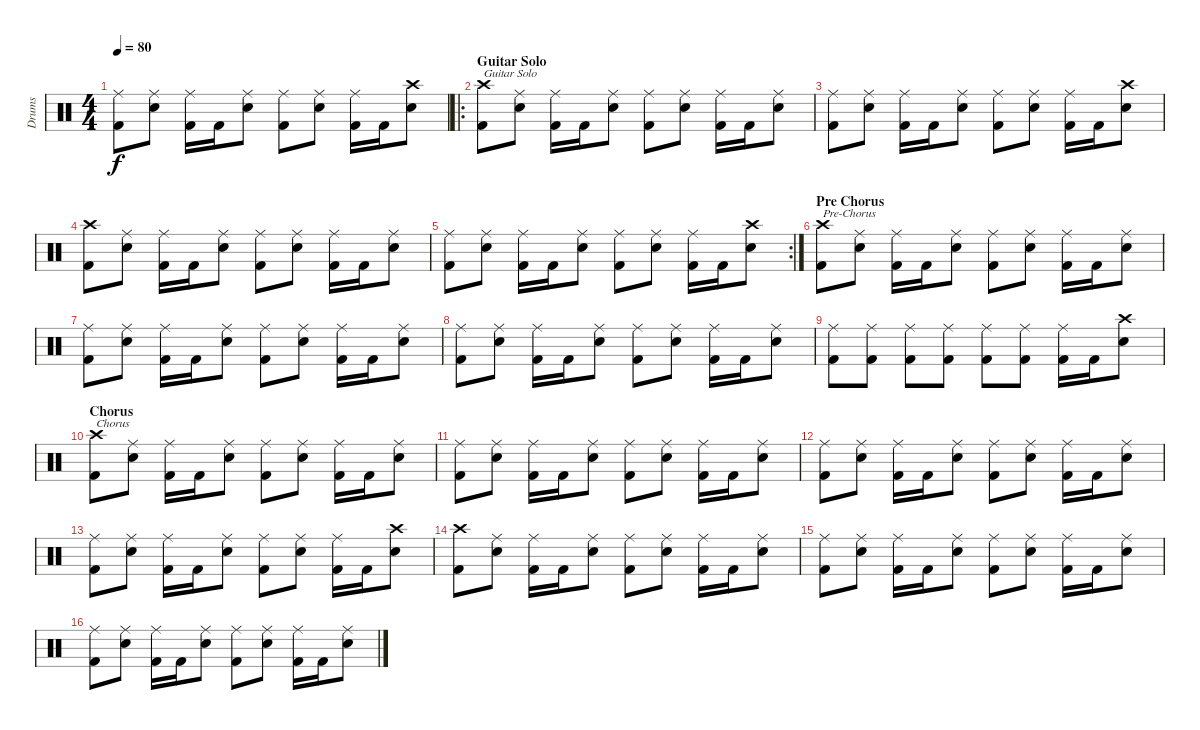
\track ("Drums" "Drums") {instrument percussion}
\staff {score}
\articulation defaults
\ts (4 4)
\tempo 80
\clef neutral
\ks c
("Ride (middle)" "Kick (hit) 2").8{dy f} ("Ride (middle)" "Electric Snare (hit)").8 ("Ride (middle)" "Kick (hit) 2").16 "Kick (hit) 2".16 ("Ride (middle)" "Electric Snare (hit)").8 ("Ride (middle)" "Kick (hit) 2").8 ("Ride (middle)" "Electric Snare (hit)").8 ("Ride (middle)" "Kick (hit) 2").16 "Kick (hit) 2".16 ("Crash high (hit)" "Electric Snare (hit)").8 |
\ro
\section ("" "Guitar Solo")
("Crash high (hit)" "Kick (hit) 2").8{txt "Guitar Solo"} ("Ride (middle)" "Electric Snare (hit)").8 ("Ride (middle)" "Kick (hit) 2").16 "Kick (hit) 2".16 ("Ride (middle)" "Electric Snare (hit)").8 ("Ride (middle)" "Kick (hit) 2").8 ("Ride (middle)" "Electric Snare (hit)").8 ("Ride (middle)" "Kick (hit) 2").16 "Kick (hit) 2".16 ("Ride (middle)" "Electric Snare (hit)").8 |
("Ride (middle)" "Kick (hit) 2").8 ("Ride (middle)" "Electric Snare (hit)").8 ("Ride (middle)" "Kick (hit) 2").16 "Kick (hit) 2".16 ("Ride (middle)" "Electric Snare (hit)").8 ("Ride (middle)" "Kick (hit) 2").8 ("Ride (middle)" "Electric Snare (hit)").8 ("Ride (middle)" "Kick (hit) 2").16 "Kick (hit) 2".16 ("Crash high (hit)" "Electric Snare (hit)").8 |
("Crash high (hit)" "Kick (hit) 2").8 ("Ride (middle)" "Electric Snare (hit)").8 ("Ride (middle)" "Kick (hit) 2").16 "Kick (hit) 2".16 ("Ride (middle)" "Electric Snare (hit)").8 ("Ride (middle)" "Kick (hit) 2").8 ("Ride (middle)" "Electric Snare (hit)").8 ("Ride (middle)" "Kick (hit) 2").16 "Kick (hit) 2".16 ("Ride (middle)" "Electric Snare (hit)").8 |
\rc 2
("Ride (middle)" "Kick (hit) 2").8 ("Ride (middle)" "Electric Snare (hit)").8 ("Ride (middle)" "Kick (hit) 2").16 "Kick (hit) 2".16 ("Ride (middle)" "Electric Snare (hit)").8 ("Ride (middle)" "Kick (hit) 2").8 ("Ride (middle)" "Electric Snare (hit)").8 ("Ride (middle)" "Kick (hit) 2").16 "Kick (hit) 2".16 ("Crash high (hit)" "Electric Snare (hit)").8 |
\section ("" "Pre Chorus")
("Crash high (hit)" "Kick (hit) 2").8{txt "Pre-Chorus"} ("Ride (middle)" "Electric Snare (hit)").8 ("Ride (middle)" "Kick (hit) 2").16 "Kick (hit) 2".16 ("Ride (middle)" "Electric Snare (hit)").8 ("Ride (middle)" "Kick (hit) 2").8 ("Ride (middle)" "Electric Snare (hit)").8 ("Ride (middle)" "Kick (hit) 2").16 "Kick (hit) 2".16 ("Ride (middle)" "Electric Snare (hit)").8 |
("Ride (middle)" "Kick (hit) 2").8 ("Ride (middle)" "Electric Snare (hit)").8 ("Ride (middle)" "Kick (hit) 2").16 "Kick (hit) 2".16 ("Ride (middle)" "Electric Snare (hit)").8 ("Ride (middle)" "Kick (hit) 2").8 ("Ride (middle)" "Electric Snare (hit)").8 ("Ride (middle)" "Kick (hit) 2").16 "Kick (hit) 2".16 ("Ride (middle)" "Electric Snare (hit)").8 |
("Ride (middle)" "Kick (hit) 2").8 ("Ride (middle)" "Electric Snare (hit)").8 ("Ride (middle)" "Kick (hit) 2").16 "Kick (hit) 2".16 ("Ride (middle)" "Electric Snare (hit)").8 ("Ride (middle)" "Kick (hit) 2").8 ("Ride (middle)" "Electric Snare (hit)").8 ("Ride (middle)" "Kick (hit) 2").16 "Kick (hit) 2".16 ("Ride (middle)" "Electric Snare (hit)").8 |
("Ride (middle)" "Kick (hit) 2").8 ("Ride (middle)" "Kick (hit) 2").8 ("Ride (middle)" "Kick (hit) 2").8 ("Ride (middle)" "Kick (hit) 2").8 ("Ride (middle)" "Kick (hit) 2").8 ("Ride (middle)" "Kick (hit) 2").8 ("Ride (middle)" "Kick (hit) 2").16 "Kick (hit) 2".16 ("Crash high (hit)" "Electric Snare (hit)").8 |
\section ("" "Chorus")
("Crash high (hit)" "Kick (hit) 2").8{txt "Chorus"} ("Ride (middle)" "Electric Snare (hit)").8 ("Ride (middle)" "Kick (hit) 2").16 "Kick (hit) 2".16 ("Ride (middle)" "Electric Snare (hit)").8 ("Ride (middle)" "Kick (hit) 2").8 ("Ride (middle)" "Electric Snare (hit)").8 ("Ride (middle)" "Kick (hit) 2").16 "Kick (hit) 2".16 ("Ride (middle)" "Electric Snare (hit)").8 |
("Ride (middle)" "Kick (hit) 2").8 ("Ride (middle)" "Electric Snare (hit)").8 ("Ride (middle)" "Kick (hit) 2").16 "Kick (hit) 2".16 ("Ride (middle)" "Electric Snare (hit)").8 ("Ride (middle)" "Kick (hit) 2").8 ("Ride (middle)" "Electric Snare (hit)").8 ("Ride (middle)" "Kick (hit) 2").16 "Kick (hit) 2".16 ("Ride (middle)" "Electric Snare (hit)").8 |
("Ride (middle)" "Kick (hit) 2").8 ("Ride (middle)" "Electric Snare (hit)").8 ("Ride (middle)" "Kick (hit) 2").16 "Kick (hit) 2".16 ("Ride (middle)" "Electric Snare (hit)").8 ("Ride (middle)" "Kick (hit) 2").8 ("Ride (middle)" "Electric Snare (hit)").8 ("Ride (middle)" "Kick (hit) 2").16 "Kick (hit) 2".16 ("Ride (middle)" "Electric Snare (hit)").8 |
("Ride (middle)" "Kick (hit) 2").8 ("Ride (middle)" "Electric Snare (hit)").8 ("Ride (middle)" "Kick (hit) 2").16 "Kick (hit) 2".16 ("Ride (middle)" "Electric Snare (hit)").8 ("Ride (middle)" "Kick (hit) 2").8 ("Ride (middle)" "Electric Snare (hit)").8 ("Ride (middle)" "Kick (hit) 2").16 "Kick (hit) 2".16 ("Crash high (hit)" "Electric Snare (hit)").8 |
("Crash high (hit)" "Kick (hit) 2").8 ("Ride (middle)" "Electric Snare (hit)").8 ("Ride (middle)" "Kick (hit) 2").16 "Kick (hit) 2".16 ("Ride (middle)" "Electric Snare (hit)").8 ("Ride (middle)" "Kick (hit) 2").8 ("Ride (middle)" "Electric Snare (hit)").8 ("Ride (middle)" "Kick (hit) 2").16 "Kick (hit) 2".16 ("Ride (middle)" "Electric Snare (hit)").8 |
("Ride (middle)" "Kick (hit) 2").8 ("Ride (middle)" "Electric Snare (hit)").8 ("Ride (middle)" "Kick (hit) 2").16 "Kick (hit) 2".16 ("Ride (middle)" "Electric Snare (hit)").8 ("Ride (middle)" "Kick (hit) 2").8 ("Ride (middle)" "Electric Snare (hit)").8 ("Ride (middle)" "Kick (hit) 2").16 "Kick (hit) 2".16 ("Ride (middle)" "Electric Snare (hit)").8 |
("Ride (middle)" "Kick (hit) 2").8 ("Ride (middle)" "Electric Snare (hit)").8 ("Ride (middle)" "Kick (hit) 2").16 "Kick (hit) 2".16 ("Ride (middle)" "Electric Snare (hit)").8 ("Ride (middle)" "Kick (hit) 2").8 ("Ride (middle)" "Electric Snare (hit)").8 ("Ride (middle)" "Kick (hit) 2").16 "Kick (hit) 2".16 ("Ride (middle)" "Electric Snare (hit)").8
